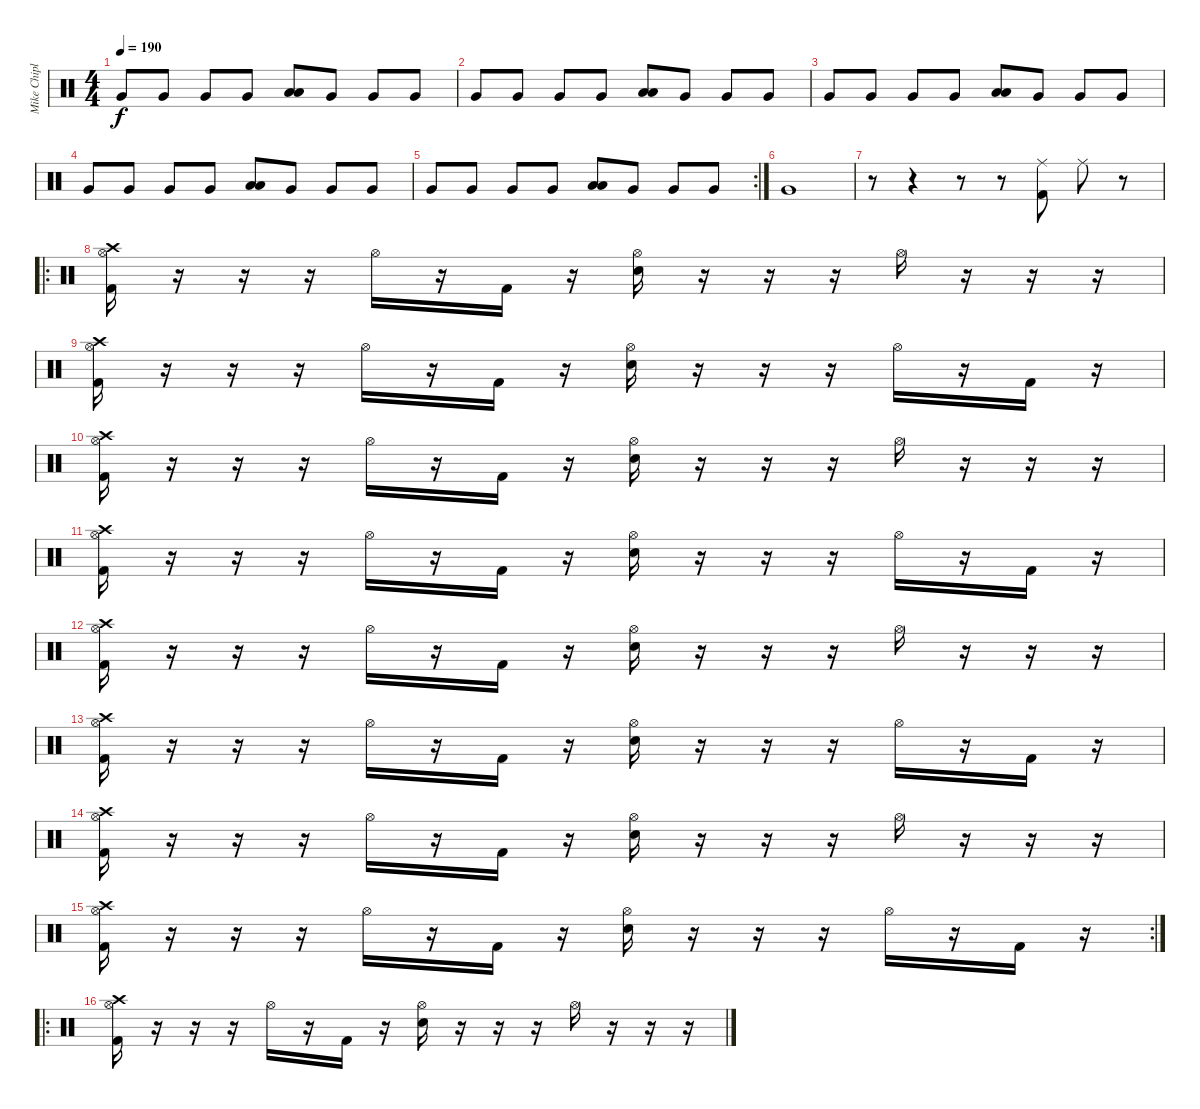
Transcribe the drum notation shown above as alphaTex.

\track ("Mike Chiplin" "Mike Chipl") {instrument percussion}
\staff {score}
\articulation defaults
\ts (4 4)
\tempo 190
\clef neutral
\ks c "Very Low Tom (hit)".8{dy f} "Very Low Tom (hit)".8 "Very Low Tom (hit)".8 "Very Low Tom (hit)".8
("Low Tom (hit)" "Low Tom (hit)").8 "Very Low Tom (hit)".8 "Very Low Tom (hit)".8 "Very Low Tom (hit)".8 |
"Very Low Tom (hit)".8 "Very Low Tom (hit)".8 "Very Low Tom (hit)".8 "Very Low Tom (hit)".8 ("Low Tom (hit)" "Low Tom (hit)").8 "Very Low Tom (hit)".8 "Very Low Tom (hit)".8 "Very Low Tom (hit)".8 |
"Very Low Tom (hit)".8 "Very Low Tom (hit)".8 "Very Low Tom (hit)".8 "Very Low Tom (hit)".8 ("Low Tom (hit)" "Low Tom (hit)").8 "Very Low Tom (hit)".8 "Very Low Tom (hit)".8 "Very Low Tom (hit)".8 |
"Very Low Tom (hit)".8 "Very Low Tom (hit)".8 "Very Low Tom (hit)".8 "Very Low Tom (hit)".8 ("Low Tom (hit)" "Low Tom (hit)").8 "Very Low Tom (hit)".8 "Very Low Tom (hit)".8 "Very Low Tom (hit)".8 |
\rc 2 "Very Low Tom (hit)".8 "Very Low Tom (hit)".8 "Very Low Tom (hit)".8 "Very Low Tom (hit)".8
("Low Tom (hit)" "Low Tom (hit)").8 "Very Low Tom (hit)".8 "Very Low Tom (hit)".8 "Very Low Tom (hit)".8 |
"Very Low Tom (hit)".1 |
r.8 r.4 r.8 r.8 ("Ride (middle)" "Kick (hit) 2").8 "Ride (middle)".8 r.8 |
\ro
("Hi-Hat (open)" "Kick (hit) 2" "Crash high (hit)").16 r.16 r.16 r.16 "Hi-Hat (open)".16 r.16 "Kick (hit) 2".16 r.16 ("Hi-Hat (open)" "Snare (hit) 2").16 r.16 r.16 r.16 "Hi-Hat (open)".16 r.16 r.16 r.16 |
("Hi-Hat (open)" "Kick (hit) 2" "Crash high (hit)").16 r.16 r.16 r.16 "Hi-Hat (open)".16 r.16 "Kick (hit) 2".16 r.16 ("Hi-Hat (open)" "Snare (hit) 2").16 r.16 r.16 r.16 "Hi-Hat (open)".16 r.16 "Kick (hit) 2".16 r.16 |
("Hi-Hat (open)" "Kick (hit) 2" "Crash high (hit)").16 r.16 r.16 r.16 "Hi-Hat (open)".16 r.16 "Kick (hit) 2".16 r.16 ("Hi-Hat (open)" "Snare (hit) 2").16 r.16 r.16 r.16 "Hi-Hat (open)".16 r.16 r.16 r.16 |
("Hi-Hat (open)" "Kick (hit) 2" "Crash high (hit)").16 r.16 r.16 r.16 "Hi-Hat (open)".16 r.16 "Kick (hit) 2".16 r.16 ("Hi-Hat (open)" "Snare (hit) 2").16 r.16 r.16 r.16 "Hi-Hat (open)".16 r.16 "Kick (hit) 2".16 r.16 |
("Hi-Hat (open)" "Kick (hit) 2" "Crash high (hit)").16 r.16 r.16 r.16 "Hi-Hat (open)".16 r.16 "Kick (hit) 2".16 r.16 ("Hi-Hat (open)" "Snare (hit) 2").16 r.16 r.16 r.16 "Hi-Hat (open)".16 r.16 r.16 r.16 |
("Hi-Hat (open)" "Kick (hit) 2" "Crash high (hit)").16 r.16 r.16 r.16 "Hi-Hat (open)".16 r.16 "Kick (hit) 2".16 r.16 ("Hi-Hat (open)" "Snare (hit) 2").16 r.16 r.16 r.16 "Hi-Hat (open)".16 r.16 "Kick (hit) 2".16 r.16 |
("Hi-Hat (open)" "Kick (hit) 2" "Crash high (hit)").16 r.16 r.16 r.16 "Hi-Hat (open)".16 r.16 "Kick (hit) 2".16 r.16 ("Hi-Hat (open)" "Snare (hit) 2").16 r.16 r.16 r.16 "Hi-Hat (open)".16 r.16 r.16 r.16 |
\rc 2
("Hi-Hat (open)" "Kick (hit) 2" "Crash high (hit)").16 r.16 r.16 r.16 "Hi-Hat (open)".16 r.16 "Kick (hit) 2".16 r.16 ("Hi-Hat (open)" "Snare (hit) 2").16 r.16 r.16 r.16 "Hi-Hat (open)".16 r.16 "Kick (hit) 2".16 r.16 |
\ro
("Hi-Hat (open)" "Kick (hit) 2" "Crash high (hit)").16 r.16 r.16 r.16 "Hi-Hat (open)".16 r.16 "Kick (hit) 2".16 r.16 ("Hi-Hat (open)" "Snare (hit) 2").16 r.16 r.16 r.16 "Hi-Hat (open)".16 r.16 r.16 r.16
